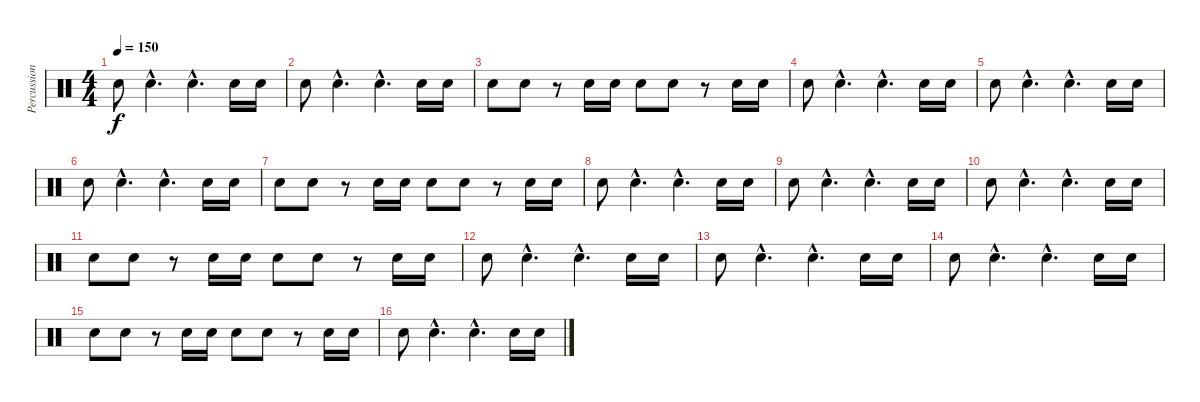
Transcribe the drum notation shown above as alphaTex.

\track ("Percussion" "Percussion") {instrument percussion}
\staff {score}
\articulation defaults
\ts (4 4)
\tempo 150
\clef neutral
\ks c "Snare (hit) 2".8{dy f} "Snare (hit) 2"{hac}.4{d} "Snare (hit) 2"{hac}.4{d} "Snare (hit) 2".16 "Snare (hit) 2".16
|
"Snare (hit) 2".8 "Snare (hit) 2"{hac}.4{d} "Snare (hit) 2"{hac}.4{d} "Snare (hit) 2".16 "Snare (hit) 2".16 |
"Snare (hit) 2".8 "Snare (hit) 2".8 r.8 "Snare (hit) 2".16 "Snare (hit) 2".16 "Snare (hit) 2".8 "Snare (hit) 2".8 r.8 "Snare (hit) 2".16 "Snare (hit) 2".16 |
"Snare (hit) 2".8 "Snare (hit) 2"{hac}.4{d} "Snare (hit) 2"{hac}.4{d} "Snare (hit) 2".16 "Snare (hit) 2".16 |
"Snare (hit) 2".8 "Snare (hit) 2"{hac}.4{d} "Snare (hit) 2"{hac}.4{d} "Snare (hit) 2".16 "Snare (hit) 2".16 |
"Snare (hit) 2".8 "Snare (hit) 2"{hac}.4{d} "Snare (hit) 2"{hac}.4{d} "Snare (hit) 2".16 "Snare (hit) 2".16 |
"Snare (hit) 2".8 "Snare (hit) 2".8 r.8 "Snare (hit) 2".16 "Snare (hit) 2".16 "Snare (hit) 2".8 "Snare (hit) 2".8 r.8 "Snare (hit) 2".16 "Snare (hit) 2".16 |
"Snare (hit) 2".8 "Snare (hit) 2"{hac}.4{d} "Snare (hit) 2"{hac}.4{d} "Snare (hit) 2".16 "Snare (hit) 2".16 |
"Snare (hit) 2".8 "Snare (hit) 2"{hac}.4{d} "Snare (hit) 2"{hac}.4{d} "Snare (hit) 2".16 "Snare (hit) 2".16 |
"Snare (hit) 2".8 "Snare (hit) 2"{hac}.4{d} "Snare (hit) 2"{hac}.4{d} "Snare (hit) 2".16 "Snare (hit) 2".16 |
"Snare (hit) 2".8 "Snare (hit) 2".8 r.8 "Snare (hit) 2".16 "Snare (hit) 2".16 "Snare (hit) 2".8 "Snare (hit) 2".8 r.8 "Snare (hit) 2".16 "Snare (hit) 2".16 |
"Snare (hit) 2".8 "Snare (hit) 2"{hac}.4{d} "Snare (hit) 2"{hac}.4{d} "Snare (hit) 2".16 "Snare (hit) 2".16 |
"Snare (hit) 2".8 "Snare (hit) 2"{hac}.4{d} "Snare (hit) 2"{hac}.4{d} "Snare (hit) 2".16 "Snare (hit) 2".16 |
"Snare (hit) 2".8 "Snare (hit) 2"{hac}.4{d} "Snare (hit) 2"{hac}.4{d} "Snare (hit) 2".16 "Snare (hit) 2".16 |
"Snare (hit) 2".8 "Snare (hit) 2".8 r.8 "Snare (hit) 2".16 "Snare (hit) 2".16 "Snare (hit) 2".8 "Snare (hit) 2".8 r.8 "Snare (hit) 2".16 "Snare (hit) 2".16 |
"Snare (hit) 2".8 "Snare (hit) 2"{hac}.4{d} "Snare (hit) 2"{hac}.4{d} "Snare (hit) 2".16 "Snare (hit) 2".16
